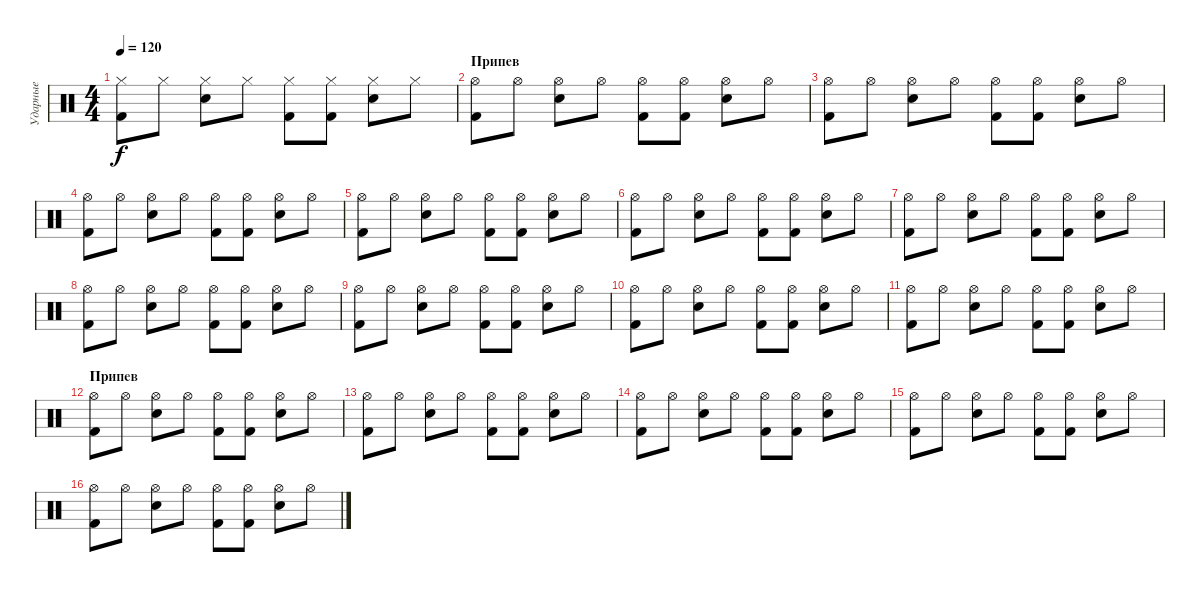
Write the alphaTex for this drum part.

\track ("Ударные" "Ударные") {instrument percussion}
\staff {score}
\articulation defaults
\ts (4 4)
\tempo 120
\clef neutral
\ks c
("Hi-Hat (closed)" "Kick (hit) 2").8{dy f} "Hi-Hat (closed)".8 ("Hi-Hat (closed)" "Snare (hit) 2").8 "Hi-Hat (closed)".8 ("Hi-Hat (closed)" "Kick (hit) 2").8 ("Hi-Hat (closed)" "Kick (hit) 2").8 ("Hi-Hat (closed)" "Snare (hit) 2").8 "Hi-Hat (closed)".8 |
\section ("" "Припев")
("Hi-Hat (open)" "Kick (hit) 2").8 "Hi-Hat (open)".8 ("Hi-Hat (open)" "Snare (hit) 2").8 "Hi-Hat (open)".8 ("Hi-Hat (open)" "Kick (hit) 2").8 ("Hi-Hat (open)" "Kick (hit) 2").8 ("Hi-Hat (open)" "Snare (hit) 2").8 "Hi-Hat (open)".8 |
("Hi-Hat (open)" "Kick (hit) 2").8 "Hi-Hat (open)".8 ("Hi-Hat (open)" "Snare (hit) 2").8 "Hi-Hat (open)".8 ("Hi-Hat (open)" "Kick (hit) 2").8 ("Hi-Hat (open)" "Kick (hit) 2").8 ("Hi-Hat (open)" "Snare (hit) 2").8 "Hi-Hat (open)".8 |
("Hi-Hat (open)" "Kick (hit) 2").8 "Hi-Hat (open)".8 ("Hi-Hat (open)" "Snare (hit) 2").8 "Hi-Hat (open)".8 ("Hi-Hat (open)" "Kick (hit) 2").8 ("Hi-Hat (open)" "Kick (hit) 2").8 ("Hi-Hat (open)" "Snare (hit) 2").8 "Hi-Hat (open)".8 |
("Hi-Hat (open)" "Kick (hit) 2").8 "Hi-Hat (open)".8 ("Hi-Hat (open)" "Snare (hit) 2").8 "Hi-Hat (open)".8 ("Hi-Hat (open)" "Kick (hit) 2").8 ("Hi-Hat (open)" "Kick (hit) 2").8 ("Hi-Hat (open)" "Snare (hit) 2").8 "Hi-Hat (open)".8 |
("Hi-Hat (open)" "Kick (hit) 2").8 "Hi-Hat (open)".8 ("Hi-Hat (open)" "Snare (hit) 2").8 "Hi-Hat (open)".8 ("Hi-Hat (open)" "Kick (hit) 2").8 ("Hi-Hat (open)" "Kick (hit) 2").8 ("Hi-Hat (open)" "Snare (hit) 2").8 "Hi-Hat (open)".8 |
("Hi-Hat (open)" "Kick (hit) 2").8 "Hi-Hat (open)".8 ("Hi-Hat (open)" "Snare (hit) 2").8 "Hi-Hat (open)".8 ("Hi-Hat (open)" "Kick (hit) 2").8 ("Hi-Hat (open)" "Kick (hit) 2").8 ("Hi-Hat (open)" "Snare (hit) 2").8 "Hi-Hat (open)".8 |
("Hi-Hat (open)" "Kick (hit) 2").8 "Hi-Hat (open)".8 ("Hi-Hat (open)" "Snare (hit) 2").8 "Hi-Hat (open)".8 ("Hi-Hat (open)" "Kick (hit) 2").8 ("Hi-Hat (open)" "Kick (hit) 2").8 ("Hi-Hat (open)" "Snare (hit) 2").8 "Hi-Hat (open)".8 |
("Hi-Hat (open)" "Kick (hit) 2").8 "Hi-Hat (open)".8 ("Hi-Hat (open)" "Snare (hit) 2").8 "Hi-Hat (open)".8 ("Hi-Hat (open)" "Kick (hit) 2").8 ("Hi-Hat (open)" "Kick (hit) 2").8 ("Hi-Hat (open)" "Snare (hit) 2").8 "Hi-Hat (open)".8 |
("Hi-Hat (open)" "Kick (hit) 2").8 "Hi-Hat (open)".8 ("Hi-Hat (open)" "Snare (hit) 2").8 "Hi-Hat (open)".8 ("Hi-Hat (open)" "Kick (hit) 2").8 ("Hi-Hat (open)" "Kick (hit) 2").8 ("Hi-Hat (open)" "Snare (hit) 2").8 "Hi-Hat (open)".8 |
("Hi-Hat (open)" "Kick (hit) 2").8 "Hi-Hat (open)".8 ("Hi-Hat (open)" "Snare (hit) 2").8 "Hi-Hat (open)".8 ("Hi-Hat (open)" "Kick (hit) 2").8 ("Hi-Hat (open)" "Kick (hit) 2").8 ("Hi-Hat (open)" "Snare (hit) 2").8 "Hi-Hat (open)".8 |
\section ("" "Припев")
("Hi-Hat (open)" "Kick (hit) 2").8 "Hi-Hat (open)".8 ("Hi-Hat (open)" "Snare (hit) 2").8 "Hi-Hat (open)".8 ("Hi-Hat (open)" "Kick (hit) 2").8 ("Hi-Hat (open)" "Kick (hit) 2").8 ("Hi-Hat (open)" "Snare (hit) 2").8 "Hi-Hat (open)".8 |
("Hi-Hat (open)" "Kick (hit) 2").8 "Hi-Hat (open)".8 ("Hi-Hat (open)" "Snare (hit) 2").8 "Hi-Hat (open)".8 ("Hi-Hat (open)" "Kick (hit) 2").8 ("Hi-Hat (open)" "Kick (hit) 2").8 ("Hi-Hat (open)" "Snare (hit) 2").8 "Hi-Hat (open)".8 |
("Hi-Hat (open)" "Kick (hit) 2").8 "Hi-Hat (open)".8 ("Hi-Hat (open)" "Snare (hit) 2").8 "Hi-Hat (open)".8 ("Hi-Hat (open)" "Kick (hit) 2").8 ("Hi-Hat (open)" "Kick (hit) 2").8 ("Hi-Hat (open)" "Snare (hit) 2").8 "Hi-Hat (open)".8 |
("Hi-Hat (open)" "Kick (hit) 2").8 "Hi-Hat (open)".8 ("Hi-Hat (open)" "Snare (hit) 2").8 "Hi-Hat (open)".8 ("Hi-Hat (open)" "Kick (hit) 2").8 ("Hi-Hat (open)" "Kick (hit) 2").8 ("Hi-Hat (open)" "Snare (hit) 2").8 "Hi-Hat (open)".8 |
("Hi-Hat (open)" "Kick (hit) 2").8 "Hi-Hat (open)".8 ("Hi-Hat (open)" "Snare (hit) 2").8 "Hi-Hat (open)".8 ("Hi-Hat (open)" "Kick (hit) 2").8 ("Hi-Hat (open)" "Kick (hit) 2").8 ("Hi-Hat (open)" "Snare (hit) 2").8 "Hi-Hat (open)".8
